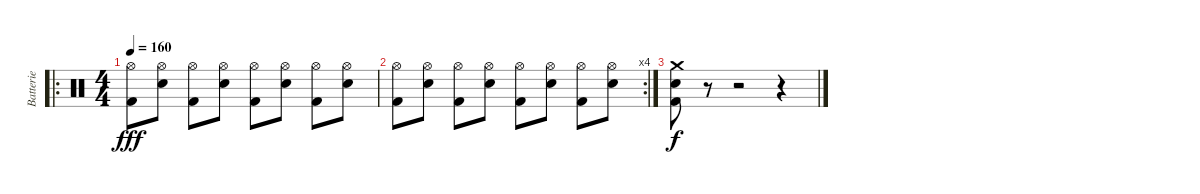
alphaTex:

\track ("Batterie" "Batterie") {instrument percussion}
\staff {score}
\articulation defaults
\ro
\ts (4 4)
\tempo 160
\clef neutral
\ks c
("Kick (hit) 2" "Hi-Hat (open)").8{dy fff} ("Electric Snare (hit)" "Hi-Hat (open)").8 ("Kick (hit) 2" "Hi-Hat (open)").8 ("Electric Snare (hit)" "Hi-Hat (open)").8 ("Kick (hit) 2" "Hi-Hat (open)").8 ("Electric Snare (hit)" "Hi-Hat (open)").8 ("Kick (hit) 2" "Hi-Hat (open)").8 ("Electric Snare (hit)" "Hi-Hat (open)").8 |
\rc 4
("Kick (hit) 2" "Hi-Hat (open)").8 ("Electric Snare (hit)" "Hi-Hat (open)").8 ("Kick (hit) 2" "Hi-Hat (open)").8 ("Electric Snare (hit)" "Hi-Hat (open)").8 ("Kick (hit) 2" "Hi-Hat (open)").8 ("Electric Snare (hit)" "Hi-Hat (open)").8 ("Kick (hit) 2" "Hi-Hat (open)").8 ("Electric Snare (hit)" "Hi-Hat (open)").8 |
("Kick (hit) 2" "Electric Snare (hit)" "Crash medium (hit)").8{dy f} r.8 r.2 r.4
